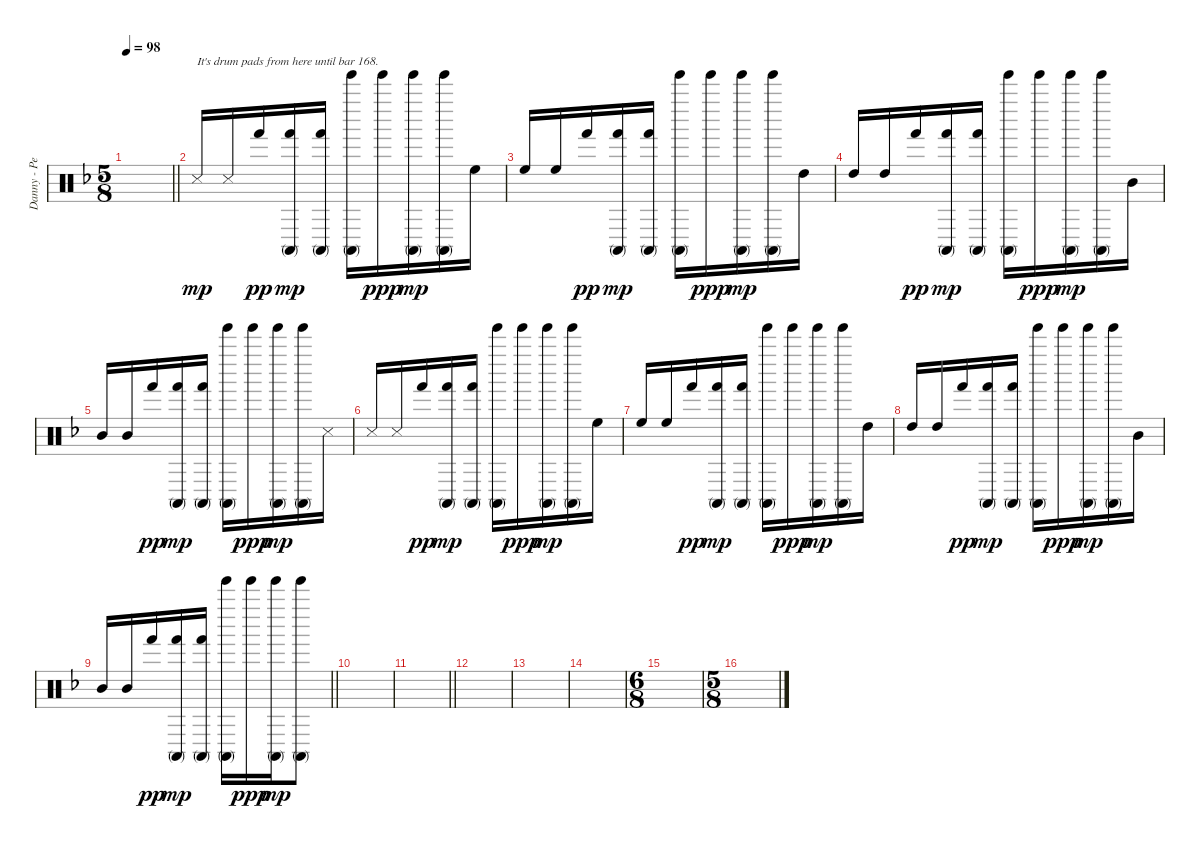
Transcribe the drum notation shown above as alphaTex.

\track ("Danny - Percusion" "Danny - Pe") {instrument percussion}
\staff {score}
\articulation defaults
\ts (5 8)
\tempo 98
\clef neutral
\barLineRight lightlight
\ks dminor
|
"Snare (side stick) 3".16{txt "It's drum pads from here until bar 168." dy mp} "Snare (side stick) 3".16{beam merge} "Hand (hit)".16{dy pp} ("Hand (hit)" "Conga high (mute)").16{dy mp beam merge} ("Hand (hit)" "Conga high (mute)").16{beam split} ("Tinkle Bell (hit)" "Conga high (mute)").16{beam merge} "Tinkle Bell (hit)".16{dy ppp} ("Tinkle Bell (hit)" "Conga high (mute)").16{dy mp beam merge} ("Tinkle Bell (hit)" "Conga high (mute)").16 "High Floor Tom (hit)".16 |
"High Floor Tom (hit)".16 "High Floor Tom (hit)".16{beam merge} "Hand (hit)".16{dy pp} ("Hand (hit)" "Conga high (mute)").16{dy mp beam merge} ("Hand (hit)" "Conga high (mute)").16{beam split} ("Tinkle Bell (hit)" "Conga high (mute)").16{beam merge} "Tinkle Bell (hit)".16{dy ppp} ("Tinkle Bell (hit)" "Conga high (mute)").16{dy mp beam merge} ("Tinkle Bell (hit)" "Conga high (mute)").16 "High Tom (hit)".16 |
"High Tom (hit)".16 "High Tom (hit)".16{beam merge} "Hand (hit)".16{dy pp} ("Hand (hit)" "Conga high (mute)").16{dy mp beam merge} ("Hand (hit)" "Conga high (mute)").16{beam split} ("Tinkle Bell (hit)" "Conga high (mute)").16{beam merge} "Tinkle Bell (hit)".16{dy ppp} ("Tinkle Bell (hit)" "Conga high (mute)").16{dy mp beam merge} ("Tinkle Bell (hit)" "Conga high (mute)").16 "Mid Tom (hit)".16 |
"Mid Tom (hit)".16 "Mid Tom (hit)".16{beam merge} "Hand (hit)".16{dy pp} ("Hand (hit)" "Conga high (mute)").16{dy mp beam merge} ("Hand (hit)" "Conga high (mute)").16{beam split} ("Tinkle Bell (hit)" "Conga high (mute)").16{beam merge} "Tinkle Bell (hit)".16{dy ppp} ("Tinkle Bell (hit)" "Conga high (mute)").16{dy mp beam merge} ("Tinkle Bell (hit)" "Conga high (mute)").16 "Snare (side stick) 3".16 |
"Snare (side stick) 3".16 "Snare (side stick) 3".16{beam merge} "Hand (hit)".16{dy pp} ("Hand (hit)" "Conga high (mute)").16{dy mp beam merge} ("Hand (hit)" "Conga high (mute)").16{beam split} ("Tinkle Bell (hit)" "Conga high (mute)").16{beam merge} "Tinkle Bell (hit)".16{dy ppp} ("Tinkle Bell (hit)" "Conga high (mute)").16{dy mp beam merge} ("Tinkle Bell (hit)" "Conga high (mute)").16 "High Floor Tom (hit)".16 |
"High Floor Tom (hit)".16 "High Floor Tom (hit)".16{beam merge} "Hand (hit)".16{dy pp} ("Hand (hit)" "Conga high (mute)").16{dy mp beam merge} ("Hand (hit)" "Conga high (mute)").16{beam split} ("Tinkle Bell (hit)" "Conga high (mute)").16{beam merge} "Tinkle Bell (hit)".16{dy ppp} ("Tinkle Bell (hit)" "Conga high (mute)").16{dy mp beam merge} ("Tinkle Bell (hit)" "Conga high (mute)").16 "High Tom (hit)".16 |
"High Tom (hit)".16 "High Tom (hit)".16{beam merge} "Hand (hit)".16{dy pp} ("Hand (hit)" "Conga high (mute)").16{dy mp beam merge} ("Hand (hit)" "Conga high (mute)").16{beam split} ("Tinkle Bell (hit)" "Conga high (mute)").16{beam merge} "Tinkle Bell (hit)".16{dy ppp} ("Tinkle Bell (hit)" "Conga high (mute)").16{dy mp beam merge} ("Tinkle Bell (hit)" "Conga high (mute)").16 "Mid Tom (hit)".16 |
\barLineRight lightlight "Mid Tom (hit)".16 "Mid Tom (hit)".16{beam merge} "Hand (hit)".16{dy pp}
("Hand (hit)" "Conga high (mute)").16{dy mp beam merge} ("Hand (hit)" "Conga high (mute)").16{beam split} ("Tinkle Bell (hit)" "Conga high (mute)").16{beam merge} "Tinkle Bell (hit)".16{dy ppp} ("Tinkle Bell (hit)" "Conga high (mute)").16{dy mp beam merge} ("Tinkle Bell (hit)" "Conga high (mute)").8 |
|
\barLineRight lightlight
|
|
|
|
\ts (6 8)
|
\ts (5 8)
